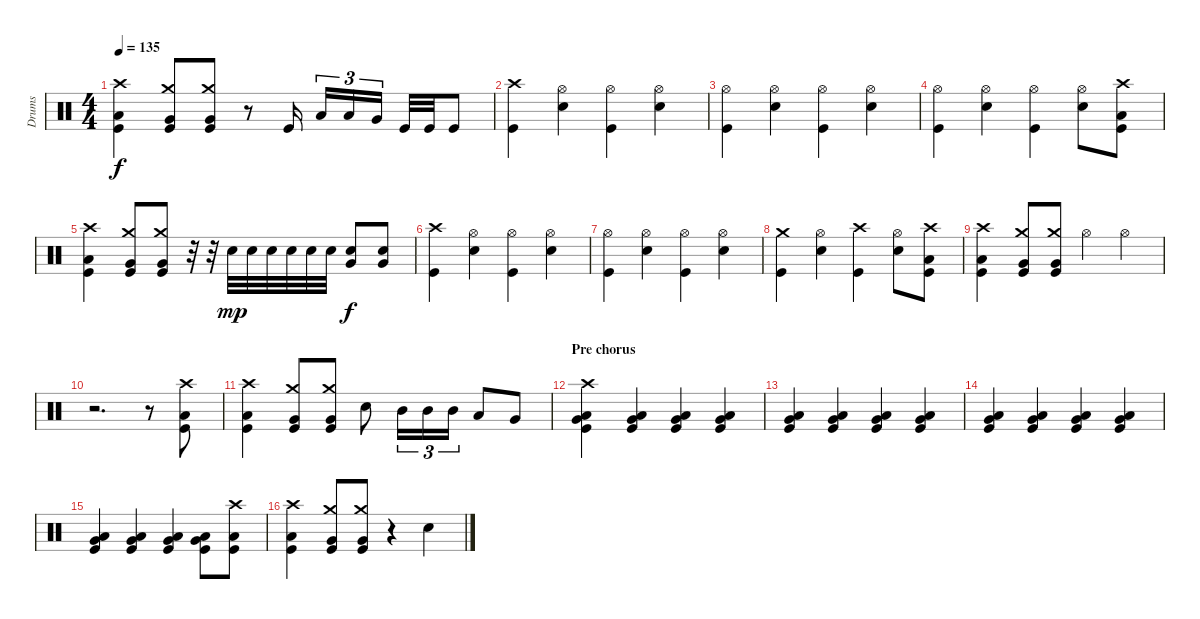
\track ("Drums" "Drums") {instrument percussion}
\staff {score}
\articulation defaults
\ts (4 4)
\tempo 135
\clef neutral
\ks c
("Crash high (hit)" "Low Floor Tom (hit)" "Kick (hit)").4{dy f} ("Crash medium (hit)" "Very Low Tom (hit)" "Kick (hit)").8 ("Crash medium (hit)" "Very Low Tom (hit)" "Kick (hit)").8 r.8 "Kick (hit)".16 "Low Tom (hit)".16{tu (3 2)} "Low Tom (hit)".16{tu (3 2)} "Very Low Tom (hit)".16{tu (3 2)} "Kick (hit)".32 "Kick (hit)".32 "Kick (hit)".8 |
("Crash high (hit)" "Kick (hit)").4 ("Hi-Hat (open)" "Snare (hit) 2").4 ("Hi-Hat (open)" "Kick (hit)").4 ("Hi-Hat (open)" "Snare (hit) 2").4 |
("Hi-Hat (open)" "Kick (hit)").4 ("Hi-Hat (open)" "Snare (hit) 2").4 ("Hi-Hat (open)" "Kick (hit)").4 ("Hi-Hat (open)" "Snare (hit) 2").4 |
("Hi-Hat (open)" "Kick (hit)").4 ("Hi-Hat (open)" "Snare (hit) 2").4 ("Hi-Hat (open)" "Kick (hit)").4 ("Hi-Hat (open)" "Snare (hit) 2").8 ("Crash high (hit)" "Low Floor Tom (hit)" "Kick (hit)").8 |
("Crash high (hit)" "Low Floor Tom (hit)" "Kick (hit)").4 ("Crash medium (hit)" "Very Low Tom (hit)" "Kick (hit)").8 ("Crash medium (hit)" "Very Low Tom (hit)" "Kick (hit)").8 r.32 r.32 "Snare (hit) 2".32{dy mp} "Snare (hit) 2".32 "Snare (hit) 2".32 "Snare (hit) 2".32 "Snare (hit) 2".32 "Snare (hit) 2".32 ("Snare (hit) 2" "Very Low Tom (hit)").8{dy f} ("Snare (hit) 2" "Very Low Tom (hit)").8 |
("Crash high (hit)" "Kick (hit)").4 ("Hi-Hat (open)" "Snare (hit) 2").4 ("Hi-Hat (open)" "Kick (hit)").4 ("Hi-Hat (open)" "Snare (hit) 2").4 |
("Hi-Hat (open)" "Kick (hit)").4 ("Hi-Hat (open)" "Snare (hit) 2").4 ("Hi-Hat (open)" "Kick (hit)").4 ("Hi-Hat (open)" "Snare (hit) 2").4 |
("Crash medium (hit)" "Kick (hit)").4 ("Hi-Hat (open)" "Snare (hit) 2").4 ("Crash high (hit)" "Kick (hit)").4 ("Hi-Hat (open)" "Snare (hit) 2").8 ("Crash high (hit)" "Low Floor Tom (hit)" "Kick (hit)").8 |
("Crash high (hit)" "Low Floor Tom (hit)" "Kick (hit)").4 ("Crash medium (hit)" "Very Low Tom (hit)" "Kick (hit)").8 ("Crash medium (hit)" "Very Low Tom (hit)" "Kick (hit)").8 "Hi-Hat (open)".4 "Hi-Hat (open)".4 |
r.2{d} r.8 ("Crash high (hit)" "Low Floor Tom (hit)" "Kick (hit)").8 |
("Crash high (hit)" "Low Floor Tom (hit)" "Kick (hit)").4 ("Crash medium (hit)" "Very Low Tom (hit)" "Kick (hit)").8 ("Crash medium (hit)" "Very Low Tom (hit)" "Kick (hit)").8 "Snare (hit) 2".8 "Mid Tom (hit)".16{tu (3 2)} "Mid Tom (hit)".16{tu (3 2)} "Mid Tom (hit)".16{tu (3 2)} "Low Tom (hit)".8 "Very Low Tom (hit)".8 |
\section ("" "Pre chorus")
("Crash high (hit)" "Low Floor Tom (hit)" "Very Low Tom (hit)" "Kick (hit)").4 ("Low Floor Tom (hit)" "Very Low Tom (hit)" "Kick (hit)").4 ("Low Floor Tom (hit)" "Very Low Tom (hit)" "Kick (hit)").4 ("Low Floor Tom (hit)" "Very Low Tom (hit)" "Kick (hit)").4 |
("Low Floor Tom (hit)" "Very Low Tom (hit)" "Kick (hit)").4 ("Low Floor Tom (hit)" "Very Low Tom (hit)" "Kick (hit)").4 ("Low Floor Tom (hit)" "Very Low Tom (hit)" "Kick (hit)").4 ("Low Floor Tom (hit)" "Very Low Tom (hit)" "Kick (hit)").4 |
("Low Floor Tom (hit)" "Very Low Tom (hit)" "Kick (hit)").4 ("Low Floor Tom (hit)" "Very Low Tom (hit)" "Kick (hit)").4 ("Low Floor Tom (hit)" "Very Low Tom (hit)" "Kick (hit)").4 ("Low Floor Tom (hit)" "Very Low Tom (hit)" "Kick (hit)").4 |
("Low Floor Tom (hit)" "Very Low Tom (hit)" "Kick (hit)").4 ("Low Floor Tom (hit)" "Very Low Tom (hit)" "Kick (hit)").4 ("Low Floor Tom (hit)" "Very Low Tom (hit)" "Kick (hit)").4 ("Low Floor Tom (hit)" "Very Low Tom (hit)" "Kick (hit)").8 ("Crash high (hit)" "Low Floor Tom (hit)" "Kick (hit)").8 |
("Crash high (hit)" "Low Floor Tom (hit)" "Kick (hit)").4 ("Crash medium (hit)" "Very Low Tom (hit)" "Kick (hit)").8 ("Crash medium (hit)" "Very Low Tom (hit)" "Kick (hit)").8 r.4 "Snare (hit) 2".4
